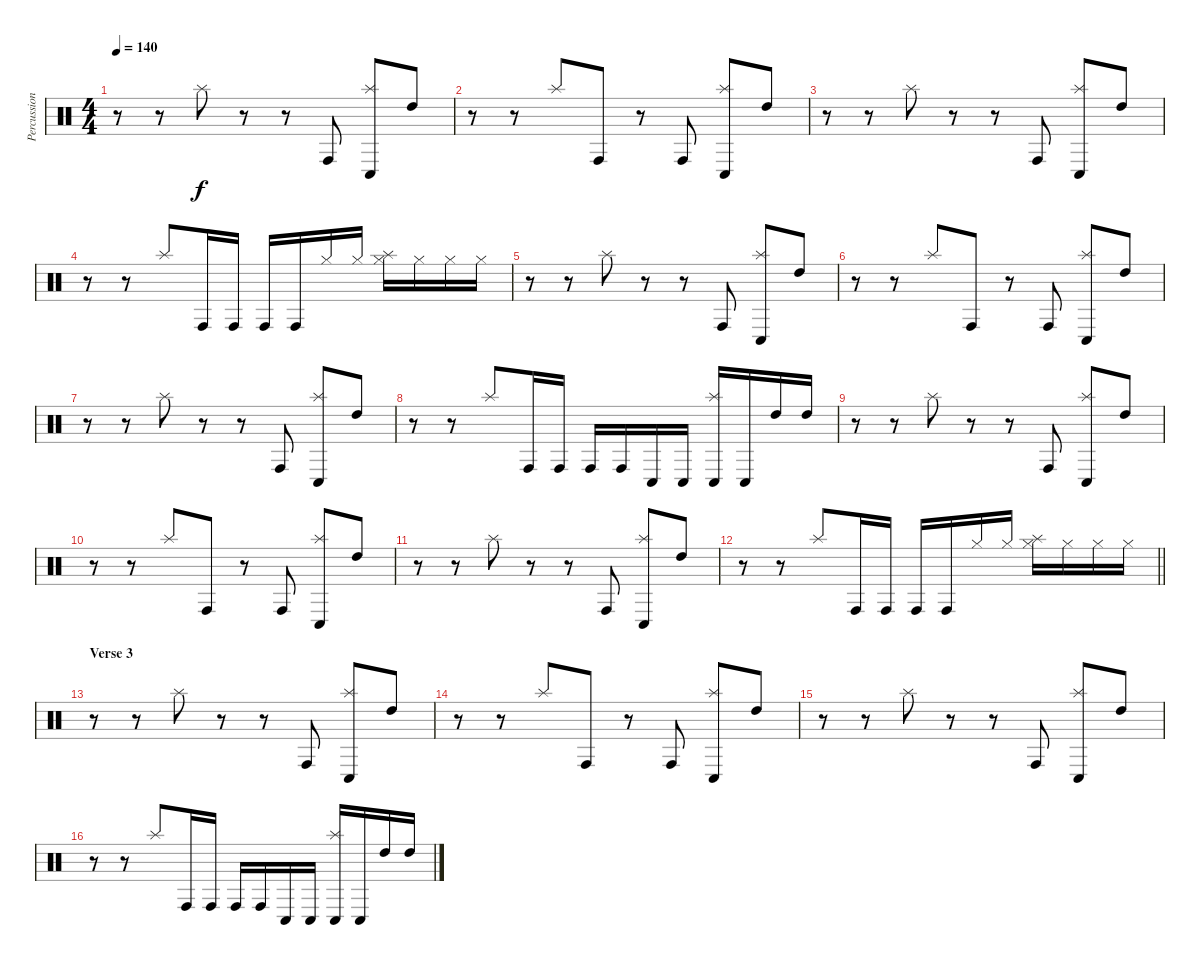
\track ("Percussion" "Percussion") {instrument percussion}
\staff {score}
\articulation defaults
\ts (4 4)
\tempo 140
\clef neutral
\ks c
r.8{dy f} r.8 "Splash (hit)".8 r.8 r.8 "Conga high (hit)".8 ("Conga low (hit)" "Splash (hit)").8 "High Tom (hit)".8 |
r.8 r.8 "Splash (hit)".8 "Conga high (hit)".8 r.8 "Conga high (hit)".8 ("Conga low (hit)" "Splash (hit)").8 "High Tom (hit)".8 |
r.8 r.8 "Splash (hit)".8 r.8 r.8 "Conga high (hit)".8 ("Conga low (hit)" "Splash (hit)").8 "High Tom (hit)".8 |
r.8 r.8 "Splash (hit)".8 "Conga high (hit)".16 "Conga high (hit)".16 "Conga high (hit)".16 "Conga high (hit)".16 "Hi-Hat (closed)".16 "Hi-Hat (closed)".16 ("Hi-Hat (closed)" "Splash (hit)").16 "Hi-Hat (closed)".16 "Hi-Hat (closed)".16 "Hi-Hat (closed)".16 |
r.8 r.8 "Splash (hit)".8 r.8 r.8 "Conga high (hit)".8 ("Conga low (hit)" "Splash (hit)").8 "High Tom (hit)".8 |
r.8 r.8 "Splash (hit)".8 "Conga high (hit)".8 r.8 "Conga high (hit)".8 ("Conga low (hit)" "Splash (hit)").8 "High Tom (hit)".8 |
r.8 r.8 "Splash (hit)".8 r.8 r.8 "Conga high (hit)".8 ("Conga low (hit)" "Splash (hit)").8 "High Tom (hit)".8 |
r.8 r.8 "Splash (hit)".8 "Conga high (hit)".16 "Conga high (hit)".16 "Conga high (hit)".16 "Conga high (hit)".16 "Conga low (hit)".16 "Conga low (hit)".16 ("Conga low (hit)" "Splash (hit)").16 "Conga low (hit)".16 "High Tom (hit)".16 "High Tom (hit)".16 |
r.8 r.8 "Splash (hit)".8 r.8 r.8 "Conga high (hit)".8 ("Conga low (hit)" "Splash (hit)").8 "High Tom (hit)".8 |
r.8 r.8 "Splash (hit)".8 "Conga high (hit)".8 r.8 "Conga high (hit)".8 ("Conga low (hit)" "Splash (hit)").8 "High Tom (hit)".8 |
r.8 r.8 "Splash (hit)".8 r.8 r.8 "Conga high (hit)".8 ("Conga low (hit)" "Splash (hit)").8 "High Tom (hit)".8 |
\barLineRight lightlight
r.8 r.8 "Splash (hit)".8 "Conga high (hit)".16 "Conga high (hit)".16 "Conga high (hit)".16 "Conga high (hit)".16 "Hi-Hat (closed)".16 "Hi-Hat (closed)".16 ("Hi-Hat (closed)" "Splash (hit)").16 "Hi-Hat (closed)".16 "Hi-Hat (closed)".16 "Hi-Hat (closed)".16 |
\section ("" "Verse 3")
r.8 r.8 "Splash (hit)".8 r.8 r.8 "Conga high (hit)".8 ("Conga low (hit)" "Splash (hit)").8 "High Tom (hit)".8 |
r.8 r.8 "Splash (hit)".8 "Conga high (hit)".8 r.8 "Conga high (hit)".8 ("Conga low (hit)" "Splash (hit)").8 "High Tom (hit)".8 |
r.8 r.8 "Splash (hit)".8 r.8 r.8 "Conga high (hit)".8 ("Conga low (hit)" "Splash (hit)").8 "High Tom (hit)".8 |
r.8 r.8 "Splash (hit)".8 "Conga high (hit)".16 "Conga high (hit)".16 "Conga high (hit)".16 "Conga high (hit)".16 "Conga low (hit)".16 "Conga low (hit)".16 ("Conga low (hit)" "Splash (hit)").16 "Conga low (hit)".16 "High Tom (hit)".16 "High Tom (hit)".16
